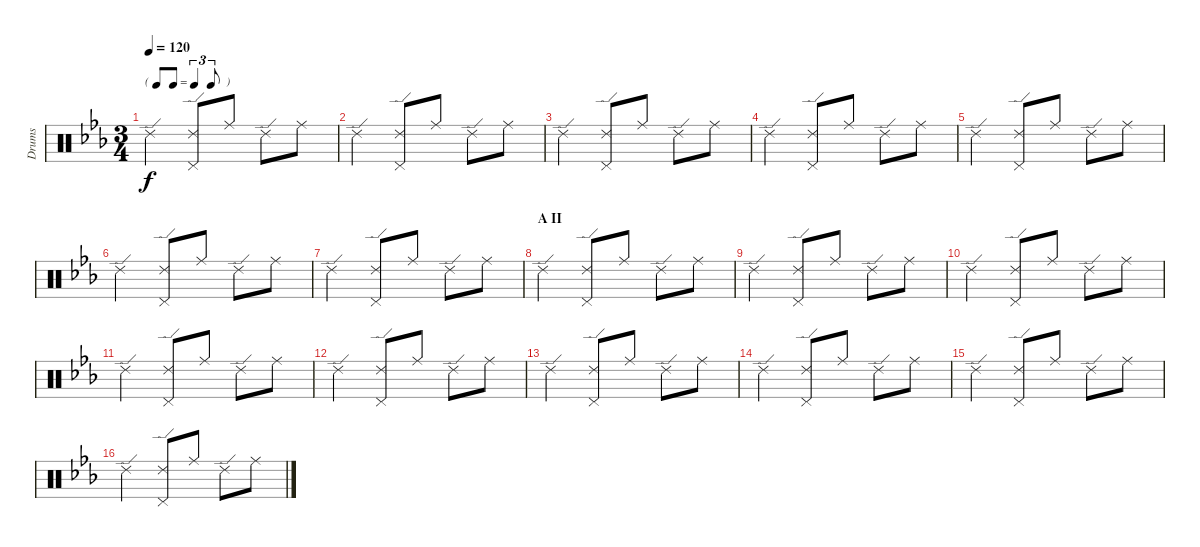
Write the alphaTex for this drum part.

\track ("Drums" "Drums") {instrument percussion}
\staff {score}
\articulation defaults
\ts (3 4)
\tf triplet8th
\tempo 120
\clef neutral
\ks cminor "Ride (edge) 2".4{dy f}
("Ride (edge) 2" "Pedal Hi-Hat (hit)").8 "Ride (middle)".8 "Ride (edge) 2".8 "Ride (middle)".8 |
"Ride (edge) 2".4 ("Ride (edge) 2" "Pedal Hi-Hat (hit)").8 "Ride (middle)".8 "Ride (edge) 2".8 "Ride (middle)".8 |
"Ride (edge) 2".4 ("Ride (edge) 2" "Pedal Hi-Hat (hit)").8 "Ride (middle)".8 "Ride (edge) 2".8 "Ride (middle)".8 |
"Ride (edge) 2".4 ("Ride (edge) 2" "Pedal Hi-Hat (hit)").8 "Ride (middle)".8 "Ride (edge) 2".8 "Ride (middle)".8 |
"Ride (edge) 2".4 ("Ride (edge) 2" "Pedal Hi-Hat (hit)").8 "Ride (middle)".8 "Ride (edge) 2".8 "Ride (middle)".8 |
"Ride (edge) 2".4 ("Ride (edge) 2" "Pedal Hi-Hat (hit)").8 "Ride (middle)".8 "Ride (edge) 2".8 "Ride (middle)".8 |
"Ride (edge) 2".4 ("Ride (edge) 2" "Pedal Hi-Hat (hit)").8 "Ride (middle)".8 "Ride (edge) 2".8 "Ride (middle)".8 |
\section ("" "A II")
"Ride (edge) 2".4 ("Ride (edge) 2" "Pedal Hi-Hat (hit)").8 "Ride (middle)".8 "Ride (edge) 2".8 "Ride (middle)".8 |
"Ride (edge) 2".4 ("Ride (edge) 2" "Pedal Hi-Hat (hit)").8 "Ride (middle)".8 "Ride (edge) 2".8 "Ride (middle)".8 |
"Ride (edge) 2".4 ("Ride (edge) 2" "Pedal Hi-Hat (hit)").8 "Ride (middle)".8 "Ride (edge) 2".8 "Ride (middle)".8 |
"Ride (edge) 2".4 ("Ride (edge) 2" "Pedal Hi-Hat (hit)").8 "Ride (middle)".8 "Ride (edge) 2".8 "Ride (middle)".8 |
"Ride (edge) 2".4 ("Ride (edge) 2" "Pedal Hi-Hat (hit)").8 "Ride (middle)".8 "Ride (edge) 2".8 "Ride (middle)".8 |
"Ride (edge) 2".4 ("Ride (edge) 2" "Pedal Hi-Hat (hit)").8 "Ride (middle)".8 "Ride (edge) 2".8 "Ride (middle)".8 |
"Ride (edge) 2".4 ("Ride (edge) 2" "Pedal Hi-Hat (hit)").8 "Ride (middle)".8 "Ride (edge) 2".8 "Ride (middle)".8 |
"Ride (edge) 2".4 ("Ride (edge) 2" "Pedal Hi-Hat (hit)").8 "Ride (middle)".8 "Ride (edge) 2".8 "Ride (middle)".8 |
"Ride (edge) 2".4 ("Ride (edge) 2" "Pedal Hi-Hat (hit)").8 "Ride (middle)".8 "Ride (edge) 2".8 "Ride (middle)".8
